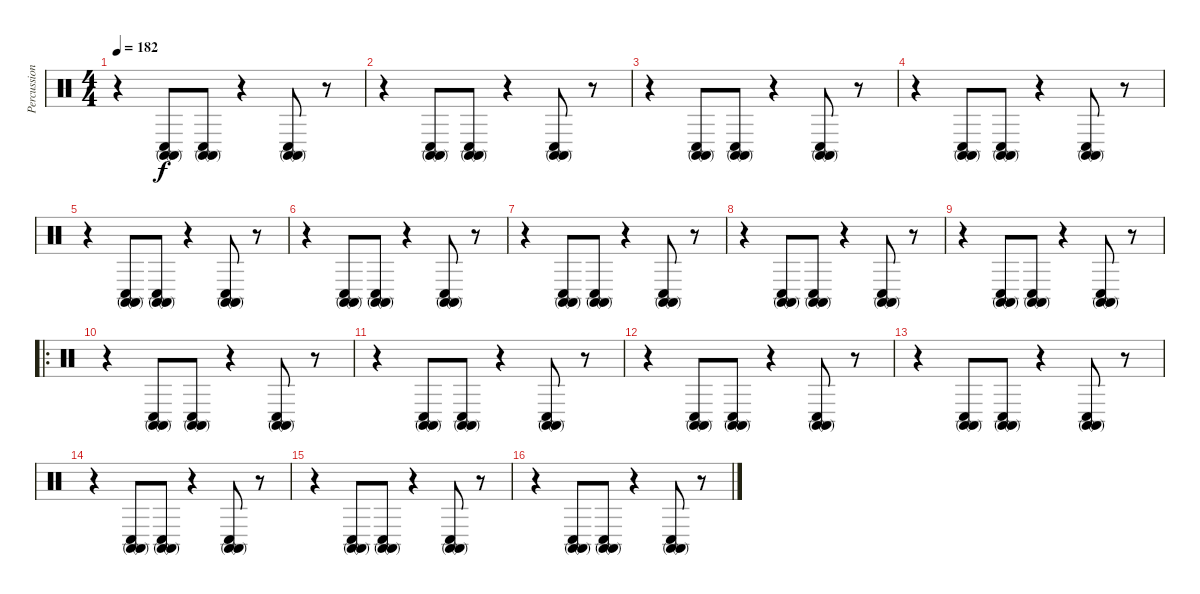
\track ("Percussion" "Percussion") {instrument percussion}
\staff {score}
\articulation defaults
\ts (4 4)
\tempo 182
\clef neutral
\ks c
r.4{dy f} ("Conga high (mute)" "Conga high (mute)" "Conga low (hit)").8 ("Conga high (mute)" "Conga high (mute)" "Conga low (hit)").8 r.4 ("Conga high (mute)" "Conga high (mute)" "Conga low (hit)").8 r.8 |
r.4 ("Conga high (mute)" "Conga high (mute)" "Conga low (hit)").8 ("Conga high (mute)" "Conga high (mute)" "Conga low (hit)").8 r.4 ("Conga high (mute)" "Conga high (mute)" "Conga low (hit)").8 r.8 |
r.4 ("Conga high (mute)" "Conga high (mute)" "Conga low (hit)").8 ("Conga high (mute)" "Conga high (mute)" "Conga low (hit)").8 r.4 ("Conga high (mute)" "Conga high (mute)" "Conga low (hit)").8 r.8 |
r.4 ("Conga high (mute)" "Conga high (mute)" "Conga low (hit)").8 ("Conga high (mute)" "Conga high (mute)" "Conga low (hit)").8 r.4 ("Conga high (mute)" "Conga high (mute)" "Conga low (hit)").8 r.8 |
r.4 ("Conga high (mute)" "Conga high (mute)" "Conga low (hit)").8 ("Conga high (mute)" "Conga high (mute)" "Conga low (hit)").8 r.4 ("Conga high (mute)" "Conga high (mute)" "Conga low (hit)").8 r.8 |
r.4 ("Conga high (mute)" "Conga high (mute)" "Conga low (hit)").8 ("Conga high (mute)" "Conga high (mute)" "Conga low (hit)").8 r.4 ("Conga high (mute)" "Conga high (mute)" "Conga low (hit)").8 r.8 |
r.4 ("Conga high (mute)" "Conga high (mute)" "Conga low (hit)").8 ("Conga high (mute)" "Conga high (mute)" "Conga low (hit)").8 r.4 ("Conga high (mute)" "Conga high (mute)" "Conga low (hit)").8 r.8 |
r.4 ("Conga high (mute)" "Conga high (mute)" "Conga low (hit)").8 ("Conga high (mute)" "Conga high (mute)" "Conga low (hit)").8 r.4 ("Conga high (mute)" "Conga high (mute)" "Conga low (hit)").8 r.8 |
r.4 ("Conga high (mute)" "Conga high (mute)" "Conga low (hit)").8 ("Conga high (mute)" "Conga high (mute)" "Conga low (hit)").8 r.4 ("Conga high (mute)" "Conga high (mute)" "Conga low (hit)").8 r.8 |
\ro
r.4 ("Conga high (mute)" "Conga high (mute)" "Conga low (hit)").8 ("Conga high (mute)" "Conga high (mute)" "Conga low (hit)").8 r.4 ("Conga high (mute)" "Conga high (mute)" "Conga low (hit)").8 r.8 |
r.4 ("Conga high (mute)" "Conga high (mute)" "Conga low (hit)").8 ("Conga high (mute)" "Conga high (mute)" "Conga low (hit)").8 r.4 ("Conga high (mute)" "Conga high (mute)" "Conga low (hit)").8 r.8 |
r.4 ("Conga high (mute)" "Conga high (mute)" "Conga low (hit)").8 ("Conga high (mute)" "Conga high (mute)" "Conga low (hit)").8 r.4 ("Conga high (mute)" "Conga high (mute)" "Conga low (hit)").8 r.8 |
r.4 ("Conga high (mute)" "Conga high (mute)" "Conga low (hit)").8 ("Conga high (mute)" "Conga high (mute)" "Conga low (hit)").8 r.4 ("Conga high (mute)" "Conga high (mute)" "Conga low (hit)").8 r.8 |
r.4 ("Conga high (mute)" "Conga high (mute)" "Conga low (hit)").8 ("Conga high (mute)" "Conga high (mute)" "Conga low (hit)").8 r.4 ("Conga high (mute)" "Conga high (mute)" "Conga low (hit)").8 r.8 |
r.4 ("Conga high (mute)" "Conga high (mute)" "Conga low (hit)").8 ("Conga high (mute)" "Conga high (mute)" "Conga low (hit)").8 r.4 ("Conga high (mute)" "Conga high (mute)" "Conga low (hit)").8 r.8 |
r.4 ("Conga high (mute)" "Conga high (mute)" "Conga low (hit)").8 ("Conga high (mute)" "Conga high (mute)" "Conga low (hit)").8 r.4 ("Conga high (mute)" "Conga high (mute)" "Conga low (hit)").8 r.8
